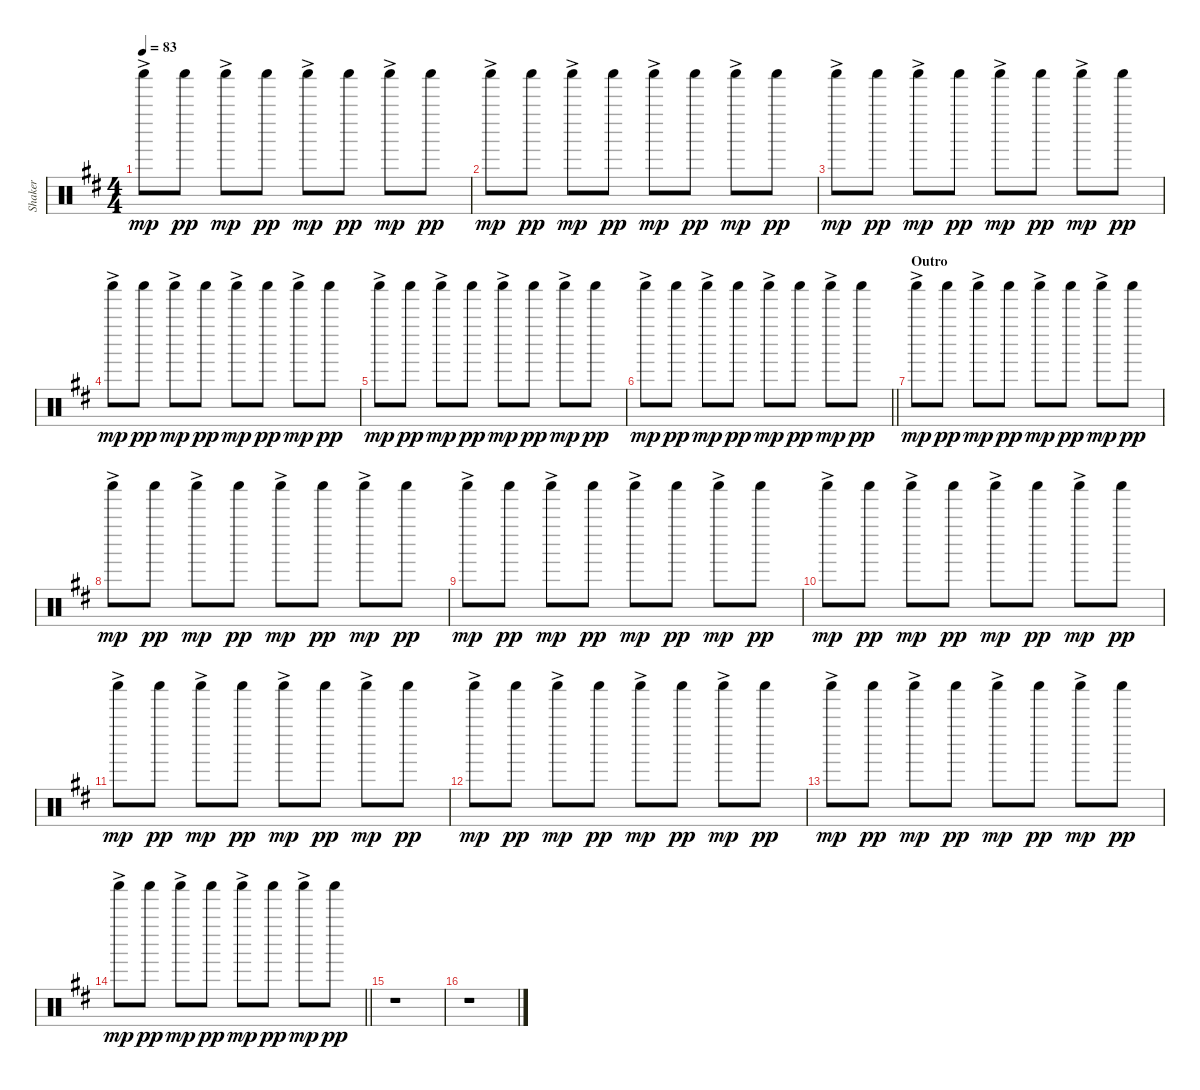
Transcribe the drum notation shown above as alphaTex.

\track ("Shaker" "Shaker") {instrument percussion}
\staff {score}
\articulation defaults
\ts (4 4)
\tempo 83
\clef neutral
\ks d "Shaker (hit)"{ac}.8{dy mp} "Shaker (hit)".8{dy pp} "Shaker (hit)"{ac}.8{dy mp} "Shaker (hit)".8{dy pp} "Shaker (hit)"{ac}.8{dy mp} "Shaker (hit)".8{dy pp} "Shaker (hit)"{ac}.8{dy mp} "Shaker (hit)".8{dy pp}
|
"Shaker (hit)"{ac}.8{dy mp} "Shaker (hit)".8{dy pp} "Shaker (hit)"{ac}.8{dy mp} "Shaker (hit)".8{dy pp} "Shaker (hit)"{ac}.8{dy mp} "Shaker (hit)".8{dy pp} "Shaker (hit)"{ac}.8{dy mp} "Shaker (hit)".8{dy pp} |
"Shaker (hit)"{ac}.8{dy mp} "Shaker (hit)".8{dy pp} "Shaker (hit)"{ac}.8{dy mp} "Shaker (hit)".8{dy pp} "Shaker (hit)"{ac}.8{dy mp} "Shaker (hit)".8{dy pp} "Shaker (hit)"{ac}.8{dy mp} "Shaker (hit)".8{dy pp} |
"Shaker (hit)"{ac}.8{dy mp} "Shaker (hit)".8{dy pp} "Shaker (hit)"{ac}.8{dy mp} "Shaker (hit)".8{dy pp} "Shaker (hit)"{ac}.8{dy mp} "Shaker (hit)".8{dy pp} "Shaker (hit)"{ac}.8{dy mp} "Shaker (hit)".8{dy pp} |
"Shaker (hit)"{ac}.8{dy mp} "Shaker (hit)".8{dy pp} "Shaker (hit)"{ac}.8{dy mp} "Shaker (hit)".8{dy pp} "Shaker (hit)"{ac}.8{dy mp} "Shaker (hit)".8{dy pp} "Shaker (hit)"{ac}.8{dy mp} "Shaker (hit)".8{dy pp} |
\barLineRight lightlight "Shaker (hit)"{ac}.8{dy mp} "Shaker (hit)".8{dy pp} "Shaker (hit)"{ac}.8{dy mp} "Shaker (hit)".8{dy pp} "Shaker (hit)"{ac}.8{dy mp} "Shaker (hit)".8{dy pp} "Shaker (hit)"{ac}.8{dy mp} "Shaker (hit)".8{dy pp}
|
\section ("" "Outro")
"Shaker (hit)"{ac}.8{dy mp} "Shaker (hit)".8{dy pp} "Shaker (hit)"{ac}.8{dy mp} "Shaker (hit)".8{dy pp} "Shaker (hit)"{ac}.8{dy mp} "Shaker (hit)".8{dy pp} "Shaker (hit)"{ac}.8{dy mp} "Shaker (hit)".8{dy pp} |
"Shaker (hit)"{ac}.8{dy mp} "Shaker (hit)".8{dy pp} "Shaker (hit)"{ac}.8{dy mp} "Shaker (hit)".8{dy pp} "Shaker (hit)"{ac}.8{dy mp} "Shaker (hit)".8{dy pp} "Shaker (hit)"{ac}.8{dy mp} "Shaker (hit)".8{dy pp} |
"Shaker (hit)"{ac}.8{dy mp} "Shaker (hit)".8{dy pp} "Shaker (hit)"{ac}.8{dy mp} "Shaker (hit)".8{dy pp} "Shaker (hit)"{ac}.8{dy mp} "Shaker (hit)".8{dy pp} "Shaker (hit)"{ac}.8{dy mp} "Shaker (hit)".8{dy pp} |
"Shaker (hit)"{ac}.8{dy mp} "Shaker (hit)".8{dy pp} "Shaker (hit)"{ac}.8{dy mp} "Shaker (hit)".8{dy pp} "Shaker (hit)"{ac}.8{dy mp} "Shaker (hit)".8{dy pp} "Shaker (hit)"{ac}.8{dy mp} "Shaker (hit)".8{dy pp} |
"Shaker (hit)"{ac}.8{dy mp} "Shaker (hit)".8{dy pp} "Shaker (hit)"{ac}.8{dy mp} "Shaker (hit)".8{dy pp} "Shaker (hit)"{ac}.8{dy mp} "Shaker (hit)".8{dy pp} "Shaker (hit)"{ac}.8{dy mp} "Shaker (hit)".8{dy pp} |
"Shaker (hit)"{ac}.8{dy mp} "Shaker (hit)".8{dy pp} "Shaker (hit)"{ac}.8{dy mp} "Shaker (hit)".8{dy pp} "Shaker (hit)"{ac}.8{dy mp} "Shaker (hit)".8{dy pp} "Shaker (hit)"{ac}.8{dy mp} "Shaker (hit)".8{dy pp} |
"Shaker (hit)"{ac}.8{dy mp} "Shaker (hit)".8{dy pp} "Shaker (hit)"{ac}.8{dy mp} "Shaker (hit)".8{dy pp} "Shaker (hit)"{ac}.8{dy mp} "Shaker (hit)".8{dy pp} "Shaker (hit)"{ac}.8{dy mp} "Shaker (hit)".8{dy pp} |
\barLineRight lightlight "Shaker (hit)"{ac}.8{dy mp} "Shaker (hit)".8{dy pp} "Shaker (hit)"{ac}.8{dy mp} "Shaker (hit)".8{dy pp} "Shaker (hit)"{ac}.8{dy mp} "Shaker (hit)".8{dy pp} "Shaker (hit)"{ac}.8{dy mp} "Shaker (hit)".8{dy pp}
|
r.1 |
r.1
